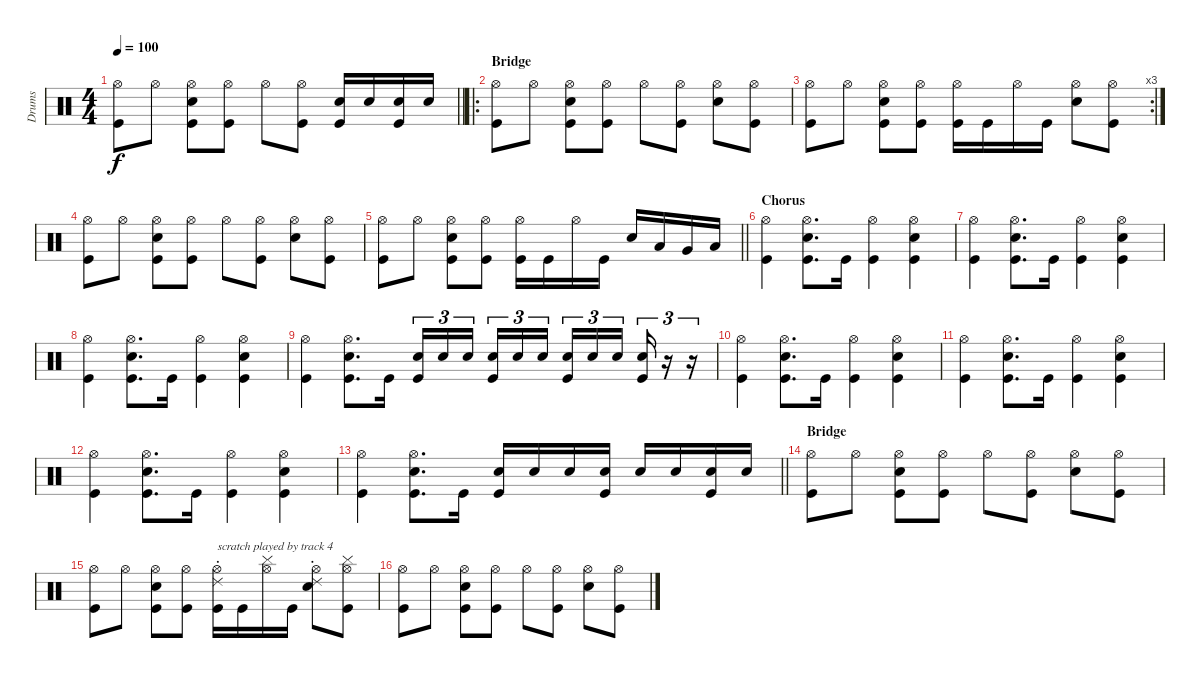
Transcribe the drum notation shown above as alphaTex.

\track ("Drums" "Drums") {instrument percussion}
\staff {score}
\articulation defaults
\ts (4 4)
\tempo 100
\clef neutral
\barLineRight lightlight
\ks c
("Hi-Hat (open)" "Kick (hit)").8{dy f} "Hi-Hat (open)".8 ("Snare (hit) 2" "Hi-Hat (open)" "Kick (hit)").8 ("Hi-Hat (open)" "Kick (hit)").8 "Hi-Hat (open)".8 ("Hi-Hat (open)" "Kick (hit)").8 ("Snare (hit) 2" "Kick (hit)").16 "Snare (hit) 2".16 ("Snare (hit) 2" "Kick (hit)").16 "Snare (hit) 2".16 |
\ro
\section ("" "Bridge")
("Hi-Hat (open)" "Kick (hit)").8 "Hi-Hat (open)".8 ("Snare (hit) 2" "Hi-Hat (open)" "Kick (hit)").8 ("Hi-Hat (open)" "Kick (hit)").8 "Hi-Hat (open)".8 ("Hi-Hat (open)" "Kick (hit)").8 ("Snare (hit) 2" "Hi-Hat (open)").8 ("Hi-Hat (open)" "Kick (hit)").8 |
\rc 3
("Hi-Hat (open)" "Kick (hit)").8 "Hi-Hat (open)".8 ("Snare (hit) 2" "Hi-Hat (open)" "Kick (hit)").8 ("Hi-Hat (open)" "Kick (hit)").8 ("Hi-Hat (open)" "Kick (hit)").16 "Kick (hit)".16 "Hi-Hat (open)".16 "Kick (hit)".16 ("Snare (hit) 2" "Hi-Hat (open)").8 ("Hi-Hat (open)" "Kick (hit)").8 |
("Hi-Hat (open)" "Kick (hit)").8 "Hi-Hat (open)".8 ("Snare (hit) 2" "Hi-Hat (open)" "Kick (hit)").8 ("Hi-Hat (open)" "Kick (hit)").8 "Hi-Hat (open)".8 ("Hi-Hat (open)" "Kick (hit)").8 ("Snare (hit) 2" "Hi-Hat (open)").8 ("Hi-Hat (open)" "Kick (hit)").8 |
\barLineRight lightlight
("Hi-Hat (open)" "Kick (hit)").8 "Hi-Hat (open)".8 ("Snare (hit) 2" "Hi-Hat (open)" "Kick (hit)").8 ("Hi-Hat (open)" "Kick (hit)").8 ("Hi-Hat (open)" "Kick (hit)").16 "Kick (hit)".16 "Hi-Hat (open)".16 "Kick (hit)".16 "Snare (hit) 2".16 "Low Tom (hit)".16 "Very Low Tom (hit)".16 "Low Floor Tom (hit)".16 |
\section ("" "Chorus")
("Hi-Hat (open)" "Kick (hit)").4 ("Snare (hit) 2" "Hi-Hat (open)" "Kick (hit)").8{d} "Kick (hit)".16 ("Hi-Hat (open)" "Kick (hit)").4 ("Snare (hit) 2" "Hi-Hat (open)" "Kick (hit)").4 |
("Hi-Hat (open)" "Kick (hit)").4 ("Snare (hit) 2" "Hi-Hat (open)" "Kick (hit)").8{d} "Kick (hit)".16 ("Hi-Hat (open)" "Kick (hit)").4 ("Snare (hit) 2" "Hi-Hat (open)" "Kick (hit)").4 |
("Hi-Hat (open)" "Kick (hit)").4 ("Snare (hit) 2" "Hi-Hat (open)" "Kick (hit)").8{d} "Kick (hit)".16 ("Hi-Hat (open)" "Kick (hit)").4 ("Snare (hit) 2" "Hi-Hat (open)" "Kick (hit)").4 |
("Hi-Hat (open)" "Kick (hit)").4 ("Snare (hit) 2" "Hi-Hat (open)" "Kick (hit)").8{d} "Kick (hit)".16 ("Snare (hit) 2" "Kick (hit)").16{tu (3 2)} "Snare (hit) 2".16{tu (3 2)} "Snare (hit) 2".16{tu (3 2) beam splitsecondary} ("Snare (hit) 2" "Kick (hit)").16{tu (3 2)} "Snare (hit) 2".16{tu (3 2)} "Snare (hit) 2".16{tu (3 2)} ("Snare (hit) 2" "Kick (hit)").16{tu (3 2)} "Snare (hit) 2".16{tu (3 2)} "Snare (hit) 2".16{tu (3 2) beam splitsecondary} ("Snare (hit) 2" "Kick (hit)").16{tu (3 2)} r.16{tu (3 2)} r.16{tu (3 2)} |
("Hi-Hat (open)" "Kick (hit)").4 ("Snare (hit) 2" "Hi-Hat (open)" "Kick (hit)").8{d} "Kick (hit)".16 ("Hi-Hat (open)" "Kick (hit)").4 ("Snare (hit) 2" "Hi-Hat (open)" "Kick (hit)").4 |
("Hi-Hat (open)" "Kick (hit)").4 ("Snare (hit) 2" "Hi-Hat (open)" "Kick (hit)").8{d} "Kick (hit)".16 ("Hi-Hat (open)" "Kick (hit)").4 ("Snare (hit) 2" "Hi-Hat (open)" "Kick (hit)").4 |
("Hi-Hat (open)" "Kick (hit)").4 ("Snare (hit) 2" "Hi-Hat (open)" "Kick (hit)").8{d} "Kick (hit)".16 ("Hi-Hat (open)" "Kick (hit)").4 ("Snare (hit) 2" "Hi-Hat (open)" "Kick (hit)").4 |
\barLineRight lightlight
("Hi-Hat (open)" "Kick (hit)").4 ("Snare (hit) 2" "Hi-Hat (open)" "Kick (hit)").8{d} "Kick (hit)".16 ("Snare (hit) 2" "Kick (hit)").16 "Snare (hit) 2".16 "Snare (hit) 2".16 ("Snare (hit) 2" "Kick (hit)").16 "Snare (hit) 2".16 "Snare (hit) 2".16 ("Snare (hit) 2" "Kick (hit)").16 "Snare (hit) 2".16 |
\section ("" "Bridge")
("Hi-Hat (open)" "Kick (hit)").8 "Hi-Hat (open)".8 ("Snare (hit) 2" "Hi-Hat (open)" "Kick (hit)").8 ("Hi-Hat (open)" "Kick (hit)").8 "Hi-Hat (open)".8 ("Hi-Hat (open)" "Kick (hit)").8 ("Snare (hit) 2" "Hi-Hat (open)").8 ("Hi-Hat (open)" "Kick (hit)").8 |
("Hi-Hat (open)" "Kick (hit)").8 "Hi-Hat (open)".8 ("Snare (hit) 2" "Hi-Hat (open)" "Kick (hit)").8 ("Hi-Hat (open)" "Kick (hit)").8 ("Ride (choke) 2" "Hi-Hat (open)" "Kick (hit)").16{txt "scratch played by track 4"} "Kick (hit)".16 ("Cymbal (hit)" "Hi-Hat (open)").16 "Kick (hit)".16 ("Ride (choke) 2" "Snare (hit) 2" "Hi-Hat (open)").8 ("Cymbal (hit)" "Hi-Hat (open)" "Kick (hit)").8 |
("Hi-Hat (open)" "Kick (hit)").8 "Hi-Hat (open)".8 ("Snare (hit) 2" "Hi-Hat (open)" "Kick (hit)").8 ("Hi-Hat (open)" "Kick (hit)").8 "Hi-Hat (open)".8 ("Hi-Hat (open)" "Kick (hit)").8 ("Snare (hit) 2" "Hi-Hat (open)").8 ("Hi-Hat (open)" "Kick (hit)").8
